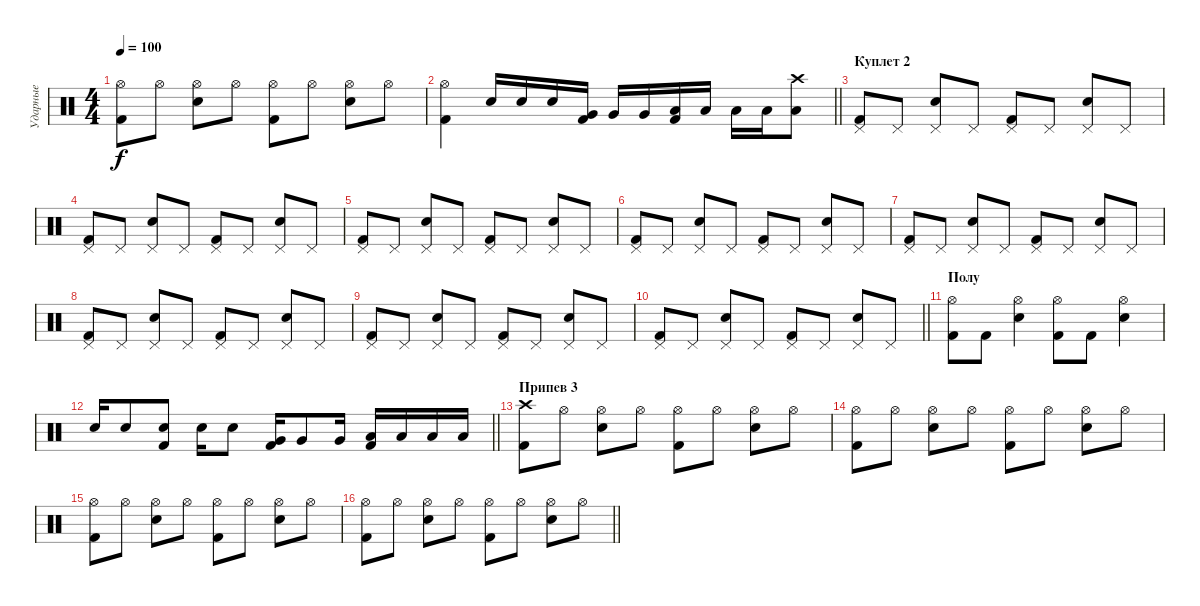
\track ("Ударные" "Ударные") {instrument percussion}
\staff {score}
\articulation defaults
\ts (4 4)
\tempo 100
\clef neutral
\ks c
("Hi-Hat (open)" "Kick (hit) 2").8{dy f} "Hi-Hat (open)".8 ("Hi-Hat (open)" "Electric Snare (hit)").8 "Hi-Hat (open)".8 ("Hi-Hat (open)" "Kick (hit) 2").8 "Hi-Hat (open)".8 ("Hi-Hat (open)" "Electric Snare (hit)").8 "Hi-Hat (open)".8 |
\barLineRight lightlight
("Hi-Hat (open)" "Kick (hit) 2").4 "Electric Snare (hit)".16 "Electric Snare (hit)".16 "Electric Snare (hit)".16 ("Very Low Tom (hit)" "Kick (hit) 2").16 "Very Low Tom (hit)".16 "Very Low Tom (hit)".16 ("Low Tom (hit)" "Kick (hit) 2").16 "Low Tom (hit)".16 "Low Tom (hit)".16 "Low Tom (hit)".16 ("Crash high (hit)" "Low Tom (hit)").8 |
\section ("" "Куплет 2")
("Pedal Hi-Hat (hit)" "Kick (hit) 2").8 "Pedal Hi-Hat (hit)".8 ("Pedal Hi-Hat (hit)" "Electric Snare (hit)").8 "Pedal Hi-Hat (hit)".8 ("Pedal Hi-Hat (hit)" "Kick (hit) 2").8 "Pedal Hi-Hat (hit)".8 ("Pedal Hi-Hat (hit)" "Electric Snare (hit)").8 "Pedal Hi-Hat (hit)".8 |
("Pedal Hi-Hat (hit)" "Kick (hit) 2").8 "Pedal Hi-Hat (hit)".8 ("Pedal Hi-Hat (hit)" "Electric Snare (hit)").8 "Pedal Hi-Hat (hit)".8 ("Pedal Hi-Hat (hit)" "Kick (hit) 2").8 "Pedal Hi-Hat (hit)".8 ("Pedal Hi-Hat (hit)" "Electric Snare (hit)").8 "Pedal Hi-Hat (hit)".8 |
("Pedal Hi-Hat (hit)" "Kick (hit) 2").8 "Pedal Hi-Hat (hit)".8 ("Pedal Hi-Hat (hit)" "Electric Snare (hit)").8 "Pedal Hi-Hat (hit)".8 ("Pedal Hi-Hat (hit)" "Kick (hit) 2").8 "Pedal Hi-Hat (hit)".8 ("Pedal Hi-Hat (hit)" "Electric Snare (hit)").8 "Pedal Hi-Hat (hit)".8 |
("Pedal Hi-Hat (hit)" "Kick (hit) 2").8 "Pedal Hi-Hat (hit)".8 ("Pedal Hi-Hat (hit)" "Electric Snare (hit)").8 "Pedal Hi-Hat (hit)".8 ("Pedal Hi-Hat (hit)" "Kick (hit) 2").8 "Pedal Hi-Hat (hit)".8 ("Pedal Hi-Hat (hit)" "Electric Snare (hit)").8 "Pedal Hi-Hat (hit)".8 |
("Pedal Hi-Hat (hit)" "Kick (hit) 2").8 "Pedal Hi-Hat (hit)".8 ("Pedal Hi-Hat (hit)" "Electric Snare (hit)").8 "Pedal Hi-Hat (hit)".8 ("Pedal Hi-Hat (hit)" "Kick (hit) 2").8 "Pedal Hi-Hat (hit)".8 ("Pedal Hi-Hat (hit)" "Electric Snare (hit)").8 "Pedal Hi-Hat (hit)".8 |
("Pedal Hi-Hat (hit)" "Kick (hit) 2").8 "Pedal Hi-Hat (hit)".8 ("Pedal Hi-Hat (hit)" "Electric Snare (hit)").8 "Pedal Hi-Hat (hit)".8 ("Pedal Hi-Hat (hit)" "Kick (hit) 2").8 "Pedal Hi-Hat (hit)".8 ("Pedal Hi-Hat (hit)" "Electric Snare (hit)").8 "Pedal Hi-Hat (hit)".8 |
("Pedal Hi-Hat (hit)" "Kick (hit) 2").8 "Pedal Hi-Hat (hit)".8 ("Pedal Hi-Hat (hit)" "Electric Snare (hit)").8 "Pedal Hi-Hat (hit)".8 ("Pedal Hi-Hat (hit)" "Kick (hit) 2").8 "Pedal Hi-Hat (hit)".8 ("Pedal Hi-Hat (hit)" "Electric Snare (hit)").8 "Pedal Hi-Hat (hit)".8 |
\barLineRight lightlight
("Pedal Hi-Hat (hit)" "Kick (hit) 2").8 "Pedal Hi-Hat (hit)".8 ("Pedal Hi-Hat (hit)" "Electric Snare (hit)").8 "Pedal Hi-Hat (hit)".8 ("Pedal Hi-Hat (hit)" "Kick (hit) 2").8 "Pedal Hi-Hat (hit)".8 ("Pedal Hi-Hat (hit)" "Electric Snare (hit)").8 "Pedal Hi-Hat (hit)".8 |
\section ("" "Полу")
("Hi-Hat (open)" "Kick (hit) 2").8 "Kick (hit) 2".8 ("Hi-Hat (open)" "Electric Snare (hit)").4 ("Hi-Hat (open)" "Kick (hit) 2").8 "Kick (hit) 2".8 ("Hi-Hat (open)" "Electric Snare (hit)").4 |
\barLineRight lightlight "Electric Snare (hit)".16 "Electric Snare (hit)".8
("Electric Snare (hit)" "Kick (hit) 2").8 "Electric Snare (hit)".16 "Electric Snare (hit)".8 ("Very Low Tom (hit)" "Kick (hit) 2").16 "Very Low Tom (hit)".8 "Very Low Tom (hit)".16 ("Low Tom (hit)" "Kick (hit) 2").16 "Low Tom (hit)".16 "Low Tom (hit)".16 "Low Tom (hit)".16 |
\section ("" "Припев 3")
("Crash high (hit)" "Kick (hit) 2").8 "Hi-Hat (open)".8 ("Hi-Hat (open)" "Electric Snare (hit)").8 "Hi-Hat (open)".8 ("Hi-Hat (open)" "Kick (hit) 2").8 "Hi-Hat (open)".8 ("Hi-Hat (open)" "Electric Snare (hit)").8 "Hi-Hat (open)".8 |
("Hi-Hat (open)" "Kick (hit) 2").8 "Hi-Hat (open)".8 ("Hi-Hat (open)" "Electric Snare (hit)").8 "Hi-Hat (open)".8 ("Hi-Hat (open)" "Kick (hit) 2").8 "Hi-Hat (open)".8 ("Hi-Hat (open)" "Electric Snare (hit)").8 "Hi-Hat (open)".8 |
("Hi-Hat (open)" "Kick (hit) 2").8 "Hi-Hat (open)".8 ("Hi-Hat (open)" "Electric Snare (hit)").8 "Hi-Hat (open)".8 ("Hi-Hat (open)" "Kick (hit) 2").8 "Hi-Hat (open)".8 ("Hi-Hat (open)" "Electric Snare (hit)").8 "Hi-Hat (open)".8 |
\barLineRight lightlight
("Hi-Hat (open)" "Kick (hit) 2").8 "Hi-Hat (open)".8 ("Hi-Hat (open)" "Electric Snare (hit)").8 "Hi-Hat (open)".8 ("Hi-Hat (open)" "Kick (hit) 2").8 "Hi-Hat (open)".8 ("Hi-Hat (open)" "Electric Snare (hit)").8 "Hi-Hat (open)".8
